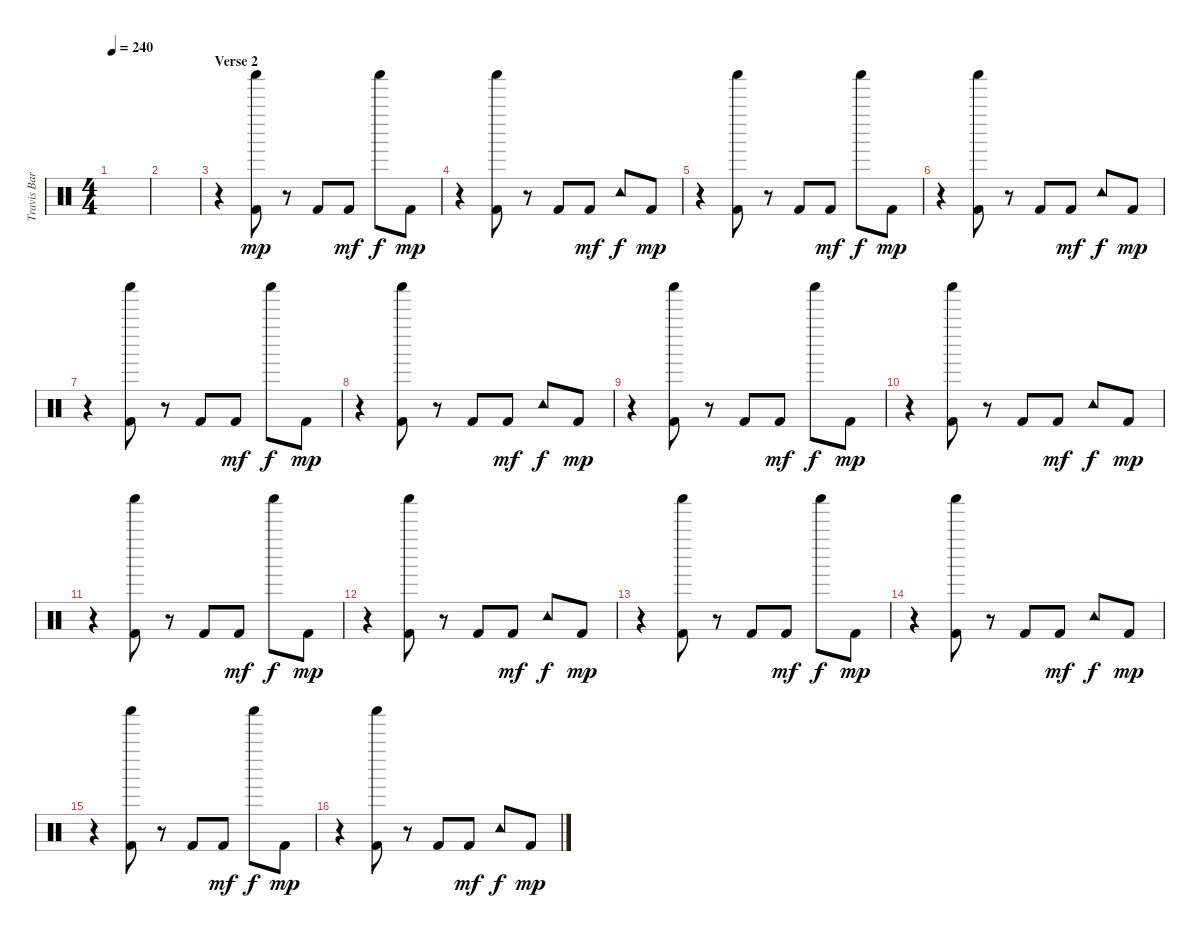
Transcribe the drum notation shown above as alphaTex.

\track ("Travis Barker - Drums" "Travis Bar") {instrument percussion}
\staff {score}
\articulation defaults
\ts (4 4)
\tempo 240
\clef neutral
\ks c
|
|
\section ("" "Verse 2")
r.4 ("Shaker (hit)" "Kick (hit) 2").8{dy mp} r.8 "Kick (hit) 2".8 "Kick (hit) 2".8{dy mf} "Shaker (hit)".8{dy f} "Kick (hit) 2".8{dy mp} |
r.4 ("Shaker (hit)" "Kick (hit) 2").8 r.8 "Kick (hit) 2".8 "Kick (hit) 2".8{dy mf} "Tambourine (hit)".8{dy f} "Kick (hit) 2".8{dy mp} |
r.4 ("Shaker (hit)" "Kick (hit) 2").8 r.8 "Kick (hit) 2".8 "Kick (hit) 2".8{dy mf} "Shaker (hit)".8{dy f} "Kick (hit) 2".8{dy mp} |
r.4 ("Shaker (hit)" "Kick (hit) 2").8 r.8 "Kick (hit) 2".8 "Kick (hit) 2".8{dy mf} "Tambourine (hit)".8{dy f} "Kick (hit) 2".8{dy mp} |
r.4 ("Shaker (hit)" "Kick (hit) 2").8 r.8 "Kick (hit) 2".8 "Kick (hit) 2".8{dy mf} "Shaker (hit)".8{dy f} "Kick (hit) 2".8{dy mp} |
r.4 ("Shaker (hit)" "Kick (hit) 2").8 r.8 "Kick (hit) 2".8 "Kick (hit) 2".8{dy mf} "Tambourine (hit)".8{dy f} "Kick (hit) 2".8{dy mp} |
r.4 ("Shaker (hit)" "Kick (hit) 2").8 r.8 "Kick (hit) 2".8 "Kick (hit) 2".8{dy mf} "Shaker (hit)".8{dy f} "Kick (hit) 2".8{dy mp} |
r.4 ("Shaker (hit)" "Kick (hit) 2").8 r.8 "Kick (hit) 2".8 "Kick (hit) 2".8{dy mf} "Tambourine (hit)".8{dy f} "Kick (hit) 2".8{dy mp} |
r.4 ("Shaker (hit)" "Kick (hit) 2").8 r.8 "Kick (hit) 2".8 "Kick (hit) 2".8{dy mf} "Shaker (hit)".8{dy f} "Kick (hit) 2".8{dy mp} |
r.4 ("Shaker (hit)" "Kick (hit) 2").8 r.8 "Kick (hit) 2".8 "Kick (hit) 2".8{dy mf} "Tambourine (hit)".8{dy f} "Kick (hit) 2".8{dy mp} |
r.4 ("Shaker (hit)" "Kick (hit) 2").8 r.8 "Kick (hit) 2".8 "Kick (hit) 2".8{dy mf} "Shaker (hit)".8{dy f} "Kick (hit) 2".8{dy mp} |
r.4 ("Shaker (hit)" "Kick (hit) 2").8 r.8 "Kick (hit) 2".8 "Kick (hit) 2".8{dy mf} "Tambourine (hit)".8{dy f} "Kick (hit) 2".8{dy mp} |
r.4 ("Shaker (hit)" "Kick (hit) 2").8 r.8 "Kick (hit) 2".8 "Kick (hit) 2".8{dy mf} "Shaker (hit)".8{dy f} "Kick (hit) 2".8{dy mp} |
r.4 ("Shaker (hit)" "Kick (hit) 2").8 r.8 "Kick (hit) 2".8 "Kick (hit) 2".8{dy mf} "Tambourine (hit)".8{dy f} "Kick (hit) 2".8{dy mp}
